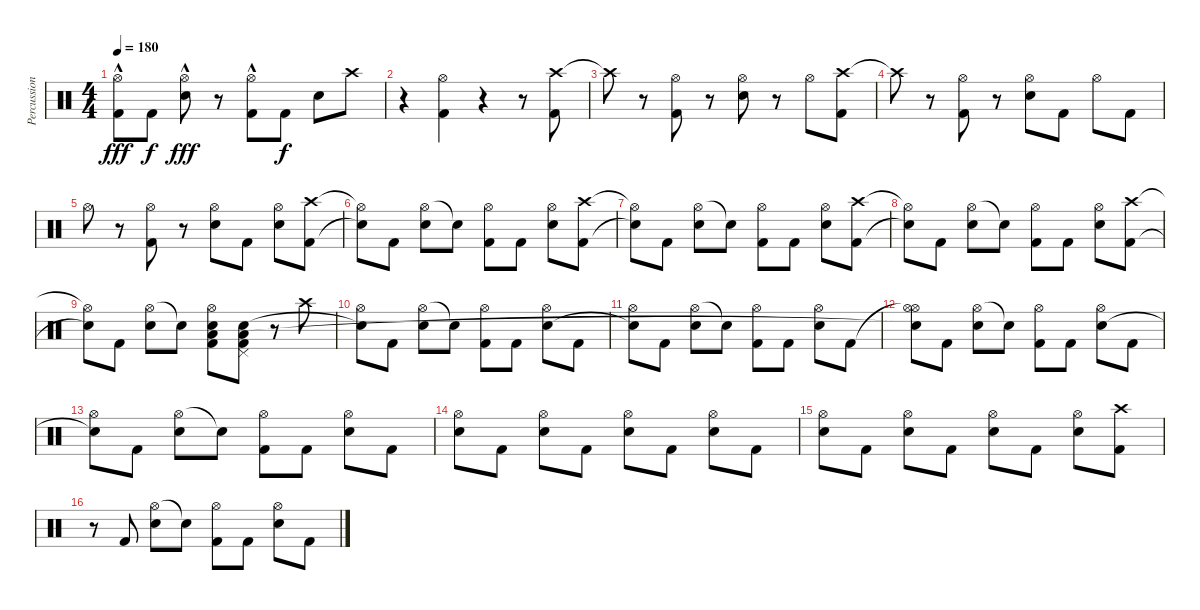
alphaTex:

\track ("Percussion" "Percussion") {instrument percussion}
\staff {score}
\articulation defaults
\ts (4 4)
\tempo 180
\clef neutral
\ks c
("Hi-Hat (open)"{hac} "Kick (hit) 2").8{dy fff} "Kick (hit) 2".8{dy f} ("Hi-Hat (open)"{hac} "Electric Snare (hit)").8{dy fff} r.8 ("Hi-Hat (open)"{hac} "Kick (hit) 2").8 "Kick (hit) 2".8{dy f} "Electric Snare (hit)".8 "Crash high (hit)".8 |
r.4 ("Hi-Hat (open)" "Kick (hit) 2").4 r.4 r.8 ("Crash high (hit)" "Kick (hit) 2").8 |
"Crash high (hit)"{t}.8 r.8 ("Hi-Hat (open)" "Kick (hit) 2").8 r.8 ("Hi-Hat (open)" "Electric Snare (hit)").8 r.8 "Hi-Hat (open)".8 ("Crash high (hit)" "Kick (hit) 2").8 |
"Crash high (hit)"{t}.8 r.8 ("Hi-Hat (open)" "Kick (hit) 2").8 r.8 ("Hi-Hat (open)" "Electric Snare (hit)").8 "Kick (hit) 2".8 "Hi-Hat (open)".8 "Kick (hit) 2".8 |
"Hi-Hat (open)".8 r.8 ("Hi-Hat (open)" "Kick (hit) 2").8 r.8 ("Hi-Hat (open)" "Electric Snare (hit)").8 "Kick (hit) 2".8 ("Hi-Hat (open)" "Electric Snare (hit)").8 ("Crash high (hit)" "Kick (hit) 2").8 |
("Hi-Hat (open)"{t} "Snare (hit)"{t}).8 "Kick (hit) 2".8 ("Hi-Hat (open)" "Electric Snare (hit)").8 "Snare (hit)"{t}.8 ("Hi-Hat (open)" "Kick (hit) 2").8 "Kick (hit) 2".8 ("Hi-Hat (open)" "Electric Snare (hit)").8 ("Crash high (hit)" "Kick (hit) 2").8 |
("Hi-Hat (open)"{t} "Snare (hit)"{t}).8 "Kick (hit) 2".8 ("Hi-Hat (open)" "Electric Snare (hit)").8 "Snare (hit)"{t}.8 ("Hi-Hat (open)" "Kick (hit) 2").8 "Kick (hit) 2".8 ("Hi-Hat (open)" "Electric Snare (hit)").8 ("Crash high (hit)" "Kick (hit) 2").8 |
("Hi-Hat (open)"{t} "Snare (hit)"{t}).8 "Kick (hit) 2".8 ("Hi-Hat (open)" "Electric Snare (hit)").8 "Snare (hit)"{t}.8 ("Hi-Hat (open)" "Kick (hit) 2").8 "Kick (hit) 2".8 ("Hi-Hat (open)" "Electric Snare (hit)").8 ("Crash high (hit)" "Kick (hit) 2").8 |
("Hi-Hat (open)"{t} "Snare (hit)"{t}).8 "Kick (hit) 2".8 ("Hi-Hat (open)" "Electric Snare (hit)").8 "Snare (hit)"{t}.8 ("Hi-Hat (open)" "Electric Snare (hit)" "Low Floor Tom (hit)" "Kick (hit) 2").8 ("Pedal Hi-Hat (hit)" "Electric Snare (hit)" "Low Floor Tom (hit)" "Kick (hit) 2").8 r.8 "Crash high (hit)".8 |
("Hi-Hat (open)" "Snare (hit)"{t}).8 "Kick (hit) 2".8 ("Hi-Hat (open)" "Electric Snare (hit)").8 "Snare (hit)"{t}.8 ("Hi-Hat (open)" "Kick (hit) 2").8 "Kick (hit) 2".8 ("Hi-Hat (open)" "Electric Snare (hit)").8 "Kick (hit) 2".8 |
("Hi-Hat (open)" "Snare (hit)"{t}).8 "Kick (hit) 2".8 ("Hi-Hat (open)" "Electric Snare (hit)").8 "Snare (hit)"{t}.8 ("Hi-Hat (open)" "Kick (hit) 2").8 "Kick (hit) 2".8 ("Hi-Hat (open)" "Electric Snare (hit)").8 "Kick (hit) 2".8 |
("Hi-Hat (open)"{t} "Hi-Hat (open)" "Snare (hit)"{t}).8 "Kick (hit) 2".8 ("Hi-Hat (open)" "Electric Snare (hit)").8 "Snare (hit)"{t}.8 ("Hi-Hat (open)" "Kick (hit) 2").8 "Kick (hit) 2".8 ("Hi-Hat (open)" "Electric Snare (hit)").8 "Kick (hit) 2".8 |
("Hi-Hat (open)" "Snare (hit)"{t}).8 "Kick (hit) 2".8 ("Hi-Hat (open)" "Electric Snare (hit)").8 "Snare (hit)"{t}.8 ("Hi-Hat (open)" "Kick (hit) 2").8 "Kick (hit) 2".8 ("Hi-Hat (open)" "Electric Snare (hit)").8 "Kick (hit) 2".8 |
("Hi-Hat (open)" "Electric Snare (hit)").8 "Kick (hit) 2".8 ("Hi-Hat (open)" "Electric Snare (hit)").8 "Kick (hit) 2".8 ("Hi-Hat (open)" "Electric Snare (hit)").8 "Kick (hit) 2".8 ("Hi-Hat (open)" "Electric Snare (hit)").8 "Kick (hit) 2".8 |
("Hi-Hat (open)" "Electric Snare (hit)").8 "Kick (hit) 2".8 ("Hi-Hat (open)" "Electric Snare (hit)").8 "Kick (hit) 2".8 ("Hi-Hat (open)" "Electric Snare (hit)").8 "Kick (hit) 2".8 ("Hi-Hat (open)" "Electric Snare (hit)").8 ("Crash high (hit)" "Kick (hit) 2").8 |
r.8 "Kick (hit) 2".8 ("Hi-Hat (open)" "Electric Snare (hit)").8 "Snare (hit)"{t}.8 ("Hi-Hat (open)" "Kick (hit) 2").8 "Kick (hit) 2".8 ("Hi-Hat (open)" "Electric Snare (hit)").8 "Kick (hit) 2".8
